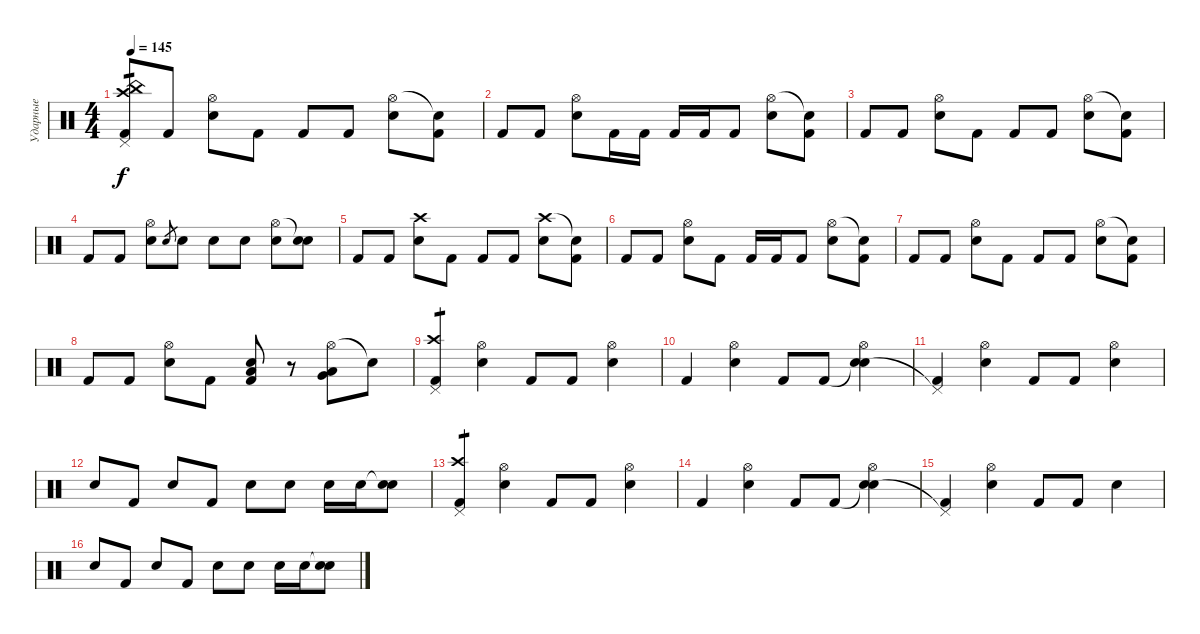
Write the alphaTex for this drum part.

\track ("Ударные" "Ударные") {instrument percussion}
\staff {score}
\articulation defaults
\ts (4 4)
\tempo 145
\clef neutral
\ks c
("Pedal Hi-Hat (hit)" "China (hit)" "Crash high (hit)" "Kick (hit) 2").8{tp 1 dy f} "Kick (hit) 2".8 ("Hi-Hat (open)" "Snare (hit) 2").8 "Kick (hit) 2".8 "Kick (hit) 2".8 "Kick (hit) 2".8 ("Hi-Hat (open)" "Snare (hit) 2").8 ("Snare (hit)"{t} "Kick (hit) 2").8 |
"Kick (hit) 2".8 "Kick (hit) 2".8 ("Hi-Hat (open)" "Snare (hit) 2").8 "Kick (hit) 2".16 "Kick (hit) 2".16 "Kick (hit) 2".16 "Kick (hit) 2".16 "Kick (hit) 2".8 ("Hi-Hat (open)" "Snare (hit) 2").8 ("Snare (hit)"{t} "Kick (hit) 2").8 |
"Kick (hit) 2".8 "Kick (hit) 2".8 ("Hi-Hat (open)" "Electric Snare (hit)").8 "Kick (hit) 2".8 "Kick (hit) 2".8 "Kick (hit) 2".8 ("Hi-Hat (open)" "Electric Snare (hit)").8 ("Snare (hit)"{t} "Kick (hit) 2").8 |
"Kick (hit) 2".8 "Kick (hit) 2".8 ("Hi-Hat (open)" "Snare (hit) 2").8 "Snare (hit) 2".8{gr} "Snare (hit) 2".8 "Snare (hit) 2".8 "Snare (hit) 2".8 ("Hi-Hat (open)" "Electric Snare (hit)").8 ("Snare (hit)"{t} "Electric Snare (hit)").8 |
"Kick (hit) 2".8 "Kick (hit) 2".8 ("Crash high (hit)" "Snare (hit) 2").8 "Kick (hit) 2".8 "Kick (hit) 2".8 "Kick (hit) 2".8 ("Crash high (hit)" "Snare (hit) 2").8 ("Snare (hit)"{t} "Kick (hit) 2").8 |
"Kick (hit) 2".8 "Kick (hit) 2".8 ("Hi-Hat (open)" "Snare (hit) 2").8 "Kick (hit) 2".8 "Kick (hit) 2".16 "Kick (hit) 2".16 "Kick (hit) 2".8 ("Hi-Hat (open)" "Snare (hit) 2").8 ("Snare (hit)"{t} "Kick (hit) 2").8 |
"Kick (hit) 2".8 "Kick (hit) 2".8 ("Hi-Hat (open)" "Electric Snare (hit)").8 "Kick (hit) 2".8 "Kick (hit) 2".8 "Kick (hit) 2".8 ("Hi-Hat (open)" "Electric Snare (hit)").8 ("Snare (hit)"{t} "Kick (hit) 2").8 |
"Kick (hit) 2".8 "Kick (hit) 2".8 ("Hi-Hat (open)" "Snare (hit) 2").8 "Kick (hit) 2".8 ("Low Floor Tom (hit)" "Electric Snare (hit)" "Kick (hit) 2").8 r.8 ("Hi-Hat (open)" "Low Floor Tom (hit)" "Very Low Tom (hit)").8 "Snare (hit)"{t}.8 |
("Pedal Hi-Hat (hit)" "Crash high (hit)" "Kick (hit) 2").4{tp 1} ("Hi-Hat (open)" "Snare (hit) 2").4 "Kick (hit) 2".8 "Kick (hit) 2".8 ("Hi-Hat (open)" "Snare (hit) 2").4 |
"Kick (hit) 2".4 ("Hi-Hat (open)" "Snare (hit) 2").4 "Kick (hit) 2".8 "Kick (hit) 2".8 ("Snare (hit)"{t} "Hi-Hat (open)" "Snare (hit) 2").4 |
("Pedal Hi-Hat (hit)"{t} "Kick (hit) 2").4 ("Hi-Hat (open)" "Snare (hit) 2").4 "Kick (hit) 2".8 "Kick (hit) 2".8 ("Hi-Hat (open)" "Snare (hit) 2").4 |
"Snare (hit) 2".8 "Kick (hit) 2".8 "Snare (hit) 2".8 "Kick (hit) 2".8 "Snare (hit) 2".8 "Snare (hit) 2".8 "Snare (hit) 2".16 "Snare (hit) 2".16 ("Snare (hit)"{t} "Snare (hit) 2").8 |
("Pedal Hi-Hat (hit)" "Crash high (hit)" "Kick (hit) 2").4{tp 1} ("Hi-Hat (open)" "Snare (hit) 2").4 "Kick (hit) 2".8 "Kick (hit) 2".8 ("Hi-Hat (open)" "Snare (hit) 2").4 |
"Kick (hit) 2".4 ("Hi-Hat (open)" "Snare (hit) 2").4 "Kick (hit) 2".8 "Kick (hit) 2".8 ("Snare (hit)"{t} "Hi-Hat (open)" "Snare (hit) 2").4 |
("Pedal Hi-Hat (hit)"{t} "Kick (hit) 2").4 ("Hi-Hat (open)" "Snare (hit) 2").4 "Kick (hit) 2".8 "Kick (hit) 2".8 "Snare (hit) 2".4 |
"Snare (hit) 2".8 "Kick (hit) 2".8 "Snare (hit) 2".8 "Kick (hit) 2".8 "Snare (hit) 2".8 "Snare (hit) 2".8 "Snare (hit) 2".16 "Snare (hit) 2".16 ("Snare (hit)"{t} "Snare (hit) 2").8
